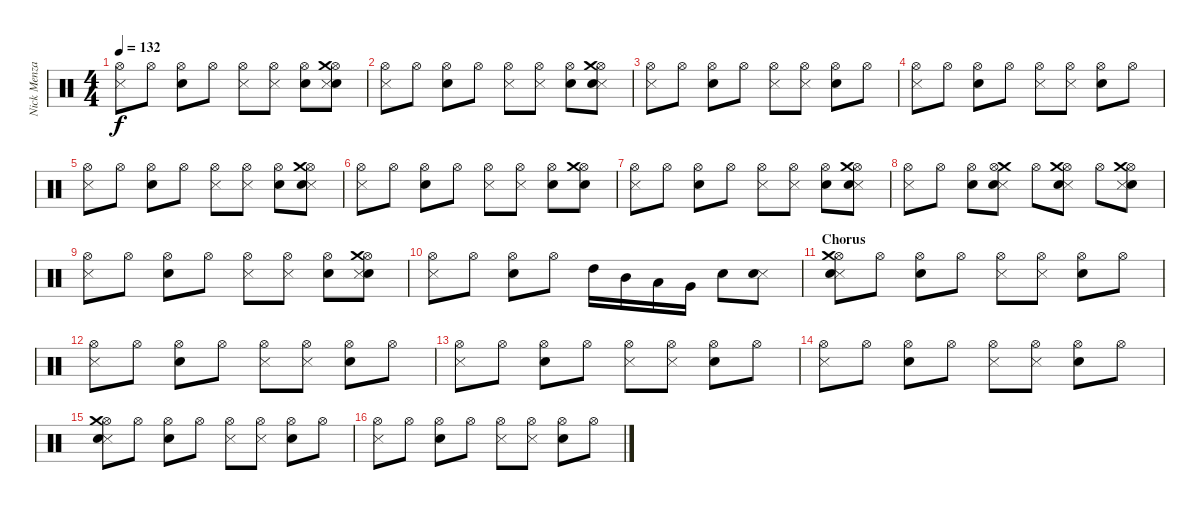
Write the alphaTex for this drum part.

\track ("Nick Menza (Drums)" "Nick Menza") {instrument percussion}
\staff {score}
\articulation defaults
\ts (4 4)
\tempo 132
\clef neutral
\ks c
("Metronome (hit)" "Hi-Hat (open)").8{dy f} "Hi-Hat (open)".8 ("Electric Snare (hit)" "Hi-Hat (open)").8 "Hi-Hat (open)".8 ("Hi-Hat (open)" "Metronome (hit)").8 ("Metronome (hit)" "Hi-Hat (open)").8 ("Hi-Hat (open)" "Electric Snare (hit)").8 ("Hi-Hat (open)" "Electric Snare (hit)" "Metronome (hit)" "Crash medium (hit)").8 |
("Hi-Hat (open)" "Metronome (hit)").8 "Hi-Hat (open)".8 ("Hi-Hat (open)" "Electric Snare (hit)").8 "Hi-Hat (open)".8 ("Metronome (hit)" "Hi-Hat (open)").8 ("Metronome (hit)" "Hi-Hat (open)").8 ("Hi-Hat (open)" "Electric Snare (hit)").8 ("Hi-Hat (open)" "Crash medium (hit)" "Metronome (hit)" "Electric Snare (hit)").8 |
("Hi-Hat (open)" "Metronome (hit)").8 "Hi-Hat (open)".8 ("Electric Snare (hit)" "Hi-Hat (open)").8 "Hi-Hat (open)".8 ("Hi-Hat (open)" "Metronome (hit)").8 ("Metronome (hit)" "Hi-Hat (open)").8 ("Hi-Hat (open)" "Electric Snare (hit)").8 "Hi-Hat (open)".8 |
("Metronome (hit)" "Hi-Hat (open)").8 "Hi-Hat (open)".8 ("Electric Snare (hit)" "Hi-Hat (open)").8 "Hi-Hat (open)".8 ("Hi-Hat (open)" "Metronome (hit)").8 ("Metronome (hit)" "Hi-Hat (open)").8 ("Hi-Hat (open)" "Electric Snare (hit)").8 "Hi-Hat (open)".8 |
("Metronome (hit)" "Hi-Hat (open)").8 "Hi-Hat (open)".8 ("Electric Snare (hit)" "Hi-Hat (open)").8 "Hi-Hat (open)".8 ("Hi-Hat (open)" "Metronome (hit)").8 ("Metronome (hit)" "Hi-Hat (open)").8 ("Hi-Hat (open)" "Electric Snare (hit)").8 ("Hi-Hat (open)" "Metronome (hit)" "Electric Snare (hit)" "Crash medium (hit)").8 |
("Metronome (hit)" "Hi-Hat (open)").8 "Hi-Hat (open)".8 ("Electric Snare (hit)" "Hi-Hat (open)").8 "Hi-Hat (open)".8 ("Hi-Hat (open)" "Metronome (hit)").8 ("Metronome (hit)" "Hi-Hat (open)").8 ("Hi-Hat (open)" "Electric Snare (hit)").8 ("Hi-Hat (open)" "Electric Snare (hit)" "Crash medium (hit)").8 |
("Metronome (hit)" "Hi-Hat (open)").8 "Hi-Hat (open)".8 ("Hi-Hat (open)" "Electric Snare (hit)").8 "Hi-Hat (open)".8 ("Metronome (hit)" "Hi-Hat (open)").8 ("Hi-Hat (open)" "Metronome (hit)").8 ("Electric Snare (hit)" "Hi-Hat (open)").8 ("Hi-Hat (open)" "Metronome (hit)" "Electric Snare (hit)" "Crash medium (hit)").8 |
("Hi-Hat (open)" "Metronome (hit)").8 "Hi-Hat (open)".8 ("Hi-Hat (open)" "Electric Snare (hit)").8 ("Metronome (hit)" "Crash medium (hit)" "Electric Snare (hit)" "Hi-Hat (open)").8 "Hi-Hat (open)".8 ("Hi-Hat (open)" "Crash medium (hit)" "Metronome (hit)" "Electric Snare (hit)").8 "Hi-Hat (open)".8 ("Hi-Hat (open)" "Electric Snare (hit)" "Metronome (hit)" "Crash medium (hit)").8 |
("Metronome (hit)" "Hi-Hat (open)").8 "Hi-Hat (open)".8 ("Electric Snare (hit)" "Hi-Hat (open)").8 "Hi-Hat (open)".8 ("Hi-Hat (open)" "Metronome (hit)").8 ("Metronome (hit)" "Hi-Hat (open)").8 ("Hi-Hat (open)" "Electric Snare (hit)").8 ("Hi-Hat (open)" "Electric Snare (hit)" "Metronome (hit)" "Crash medium (hit)").8 |
("Hi-Hat (open)" "Metronome (hit)").8 "Hi-Hat (open)".8 ("Hi-Hat (open)" "Electric Snare (hit)").8 "Hi-Hat (open)".8 "High Tom (hit)".16 "Mid Tom (hit)".16 "Low Tom (hit)".16 "Very Low Tom (hit)".16 "Electric Snare (hit)".8 ("Metronome (hit)" "Electric Snare (hit)").8 |
\section ("" "Chorus")
("Metronome (hit)" "Electric Snare (hit)" "Hi-Hat (open)" "Crash medium (hit)").8 "Hi-Hat (open)".8 ("Electric Snare (hit)" "Hi-Hat (open)").8 "Hi-Hat (open)".8 ("Hi-Hat (open)" "Metronome (hit)").8 ("Hi-Hat (open)" "Metronome (hit)").8 ("Hi-Hat (open)" "Electric Snare (hit)").8 "Hi-Hat (open)".8 |
("Hi-Hat (open)" "Metronome (hit)").8 "Hi-Hat (open)".8 ("Hi-Hat (open)" "Electric Snare (hit)").8 "Hi-Hat (open)".8 ("Metronome (hit)" "Hi-Hat (open)").8 ("Metronome (hit)" "Hi-Hat (open)").8 ("Electric Snare (hit)" "Hi-Hat (open)").8 "Hi-Hat (open)".8 |
("Hi-Hat (open)" "Metronome (hit)").8 "Hi-Hat (open)".8 ("Electric Snare (hit)" "Hi-Hat (open)").8 "Hi-Hat (open)".8 ("Hi-Hat (open)" "Metronome (hit)").8 ("Hi-Hat (open)" "Metronome (hit)").8 ("Hi-Hat (open)" "Electric Snare (hit)").8 "Hi-Hat (open)".8 |
("Hi-Hat (open)" "Metronome (hit)").8 "Hi-Hat (open)".8 ("Hi-Hat (open)" "Electric Snare (hit)").8 "Hi-Hat (open)".8 ("Metronome (hit)" "Hi-Hat (open)").8 ("Metronome (hit)" "Hi-Hat (open)").8 ("Electric Snare (hit)" "Hi-Hat (open)").8 "Hi-Hat (open)".8 |
("Metronome (hit)" "Electric Snare (hit)" "Hi-Hat (open)" "Crash medium (hit)").8 "Hi-Hat (open)".8 ("Electric Snare (hit)" "Hi-Hat (open)").8 "Hi-Hat (open)".8 ("Hi-Hat (open)" "Metronome (hit)").8 ("Hi-Hat (open)" "Metronome (hit)").8 ("Hi-Hat (open)" "Electric Snare (hit)").8 "Hi-Hat (open)".8 |
("Hi-Hat (open)" "Metronome (hit)").8 "Hi-Hat (open)".8 ("Hi-Hat (open)" "Electric Snare (hit)").8 "Hi-Hat (open)".8 ("Metronome (hit)" "Hi-Hat (open)").8 ("Metronome (hit)" "Hi-Hat (open)").8 ("Electric Snare (hit)" "Hi-Hat (open)").8 "Hi-Hat (open)".8
